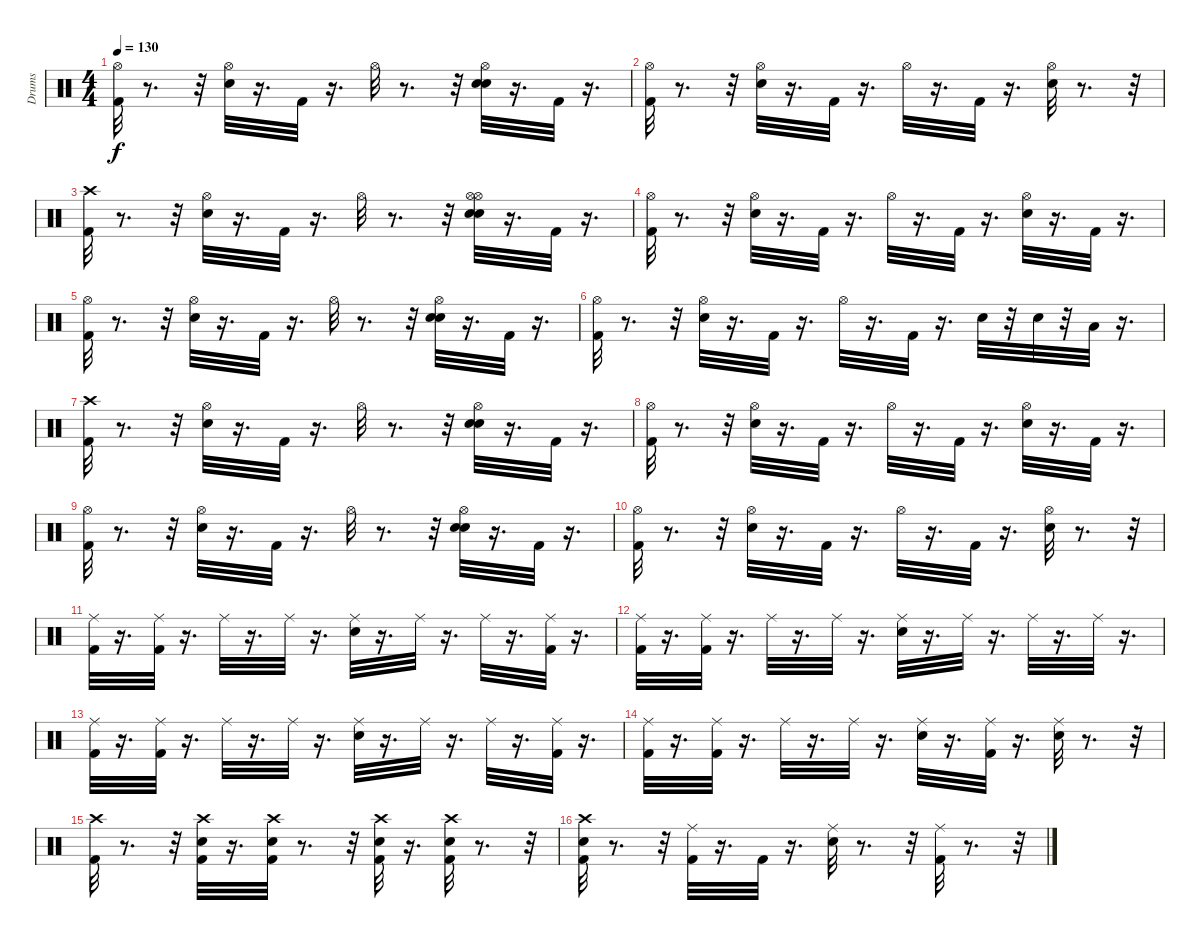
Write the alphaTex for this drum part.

\track ("Drums" "Drums") {instrument percussion}
\staff {score}
\articulation defaults
\ts (4 4)
\tempo 130
\clef neutral
\ks c
("Hi-Hat (open)" "Kick (hit) 2").32{dy f} r.8{d} r.32 ("Snare (hit) 2" "Hi-Hat (open)").32 r.16{d} "Kick (hit) 2".32 r.16{d} "Hi-Hat (open)".32 r.8{d} r.32 ("Snare (hit) 2" "Snare (hit) 2" "Hi-Hat (open)").32 r.16{d} "Kick (hit) 2".32 r.16{d} |
("Hi-Hat (open)" "Kick (hit) 2").32 r.8{d} r.32 ("Snare (hit) 2" "Hi-Hat (open)").32 r.16{d} "Kick (hit) 2".32 r.16{d} "Hi-Hat (open)".32 r.16{d} "Kick (hit) 2".32 r.16{d} ("Snare (hit) 2" "Hi-Hat (open)").32 r.8{d} r.32 |
("Kick (hit) 2" "Crash high (hit)").32 r.8{d} r.32 ("Snare (hit) 2" "Hi-Hat (open)").32 r.16{d} "Kick (hit) 2".32 r.16{d} "Hi-Hat (open)".32 r.8{d} r.32 ("Snare (hit) 2" "Hi-Hat (open)" "Snare (hit) 2" "Hi-Hat (open)").32 r.16{d} "Kick (hit) 2".32 r.16{d} |
("Kick (hit) 2" "Hi-Hat (open)").32 r.8{d} r.32 ("Snare (hit) 2" "Hi-Hat (open)").32 r.16{d} "Kick (hit) 2".32 r.16{d} "Hi-Hat (open)".32 r.16{d} "Kick (hit) 2".32 r.16{d} ("Snare (hit) 2" "Hi-Hat (open)").32 r.16{d} "Kick (hit) 2".32 r.16{d} |
("Hi-Hat (open)" "Kick (hit) 2").32 r.8{d} r.32 ("Snare (hit) 2" "Hi-Hat (open)").32 r.16{d} "Kick (hit) 2".32 r.16{d} "Hi-Hat (open)".32 r.8{d} r.32 ("Snare (hit) 2" "Snare (hit) 2" "Hi-Hat (open)").32 r.16{d} "Kick (hit) 2".32 r.16{d} |
("Kick (hit) 2" "Hi-Hat (open)").32 r.8{d} r.32 ("Snare (hit) 2" "Hi-Hat (open)").32 r.16{d} "Kick (hit) 2".32 r.16{d} "Hi-Hat (open)".32 r.16{d} "Kick (hit) 2".32 r.16{d} "Snare (hit) 2".32 r.32 "Snare (hit) 2".32 r.32 "Low Floor Tom (hit)".32 r.16{d} |
("Kick (hit) 2" "Crash high (hit)").32 r.8{d} r.32 ("Snare (hit) 2" "Hi-Hat (open)").32 r.16{d} "Kick (hit) 2".32 r.16{d} "Hi-Hat (open)".32 r.8{d} r.32 ("Snare (hit) 2" "Snare (hit) 2" "Hi-Hat (open)").32 r.16{d} "Kick (hit) 2".32 r.16{d} |
("Kick (hit) 2" "Hi-Hat (open)").32 r.8{d} r.32 ("Snare (hit) 2" "Hi-Hat (open)").32 r.16{d} "Kick (hit) 2".32 r.16{d} "Hi-Hat (open)".32 r.16{d} "Kick (hit) 2".32 r.16{d} ("Hi-Hat (open)" "Snare (hit) 2").32 r.16{d} "Kick (hit) 2".32 r.16{d} |
("Hi-Hat (open)" "Kick (hit) 2").32 r.8{d} r.32 ("Snare (hit) 2" "Hi-Hat (open)").32 r.16{d} "Kick (hit) 2".32 r.16{d} "Hi-Hat (open)".32 r.8{d} r.32 ("Snare (hit) 2" "Snare (hit) 2" "Hi-Hat (open)").32 r.16{d} "Kick (hit) 2".32 r.16{d} |
("Hi-Hat (open)" "Kick (hit) 2").32 r.8{d} r.32 ("Snare (hit) 2" "Hi-Hat (open)").32 r.16{d} "Kick (hit) 2".32 r.16{d} "Hi-Hat (open)".32 r.16{d} "Kick (hit) 2".32 r.16{d} ("Snare (hit) 2" "Hi-Hat (open)").32 r.8{d} r.32 |
("Ride (middle)" "Kick (hit) 2").32 r.16{d} ("Kick (hit) 2" "Ride (middle)").32 r.16{d} "Ride (middle)".32 r.16{d} "Ride (middle)".32 r.16{d} ("Ride (middle)" "Snare (hit) 2").32 r.16{d} "Ride (middle)".32 r.16{d} "Ride (middle)".32 r.16{d} ("Ride (middle)" "Kick (hit) 2").32 r.16{d} |
("Kick (hit) 2" "Ride (middle)").32 r.16{d} ("Kick (hit) 2" "Ride (middle)").32 r.16{d} "Ride (middle)".32 r.16{d} "Ride (middle)".32 r.16{d} ("Ride (middle)" "Snare (hit) 2").32 r.16{d} "Ride (middle)".32 r.16{d} "Ride (middle)".32 r.16{d} "Ride (middle)".32 r.16{d} |
("Ride (middle)" "Kick (hit) 2").32 r.16{d} ("Kick (hit) 2" "Ride (middle)").32 r.16{d} "Ride (middle)".32 r.16{d} "Ride (middle)".32 r.16{d} ("Ride (middle)" "Snare (hit) 2").32 r.16{d} "Ride (middle)".32 r.16{d} "Ride (middle)".32 r.16{d} ("Kick (hit) 2" "Ride (middle)").32 r.16{d} |
("Ride (middle)" "Kick (hit) 2").32 r.16{d} ("Kick (hit) 2" "Ride (middle)").32 r.16{d} "Ride (middle)".32 r.16{d} "Ride (middle)".32 r.16{d} ("Ride (middle)" "Snare (hit) 2").32 r.16{d} ("Ride (middle)" "Kick (hit) 2").32 r.16{d} ("Ride (middle)" "Snare (hit) 2").32 r.8{d} r.32 |
("Kick (hit) 2" "Crash high (hit)").32 r.8{d} r.32 ("Kick (hit) 2" "Crash high (hit)" "Snare (hit) 2").32 r.16{d} ("Snare (hit) 2" "Kick (hit) 2" "Crash high (hit)").32 r.8{d} r.32 ("Crash high (hit)" "Kick (hit) 2" "Snare (hit) 2").32 r.16{d} ("Snare (hit) 2" "Crash high (hit)" "Kick (hit) 2").32 r.8{d} r.32 |
("Kick (hit) 2" "Snare (hit) 2" "Crash high (hit)").32 r.8{d} r.32 ("Kick (hit) 2" "Ride (middle)").32 r.16{d} "Kick (hit) 2".32 r.16{d} ("Snare (hit) 2" "Ride (middle)").32 r.8{d} r.32 ("Ride (middle)" "Kick (hit) 2").32 r.8{d} r.32
